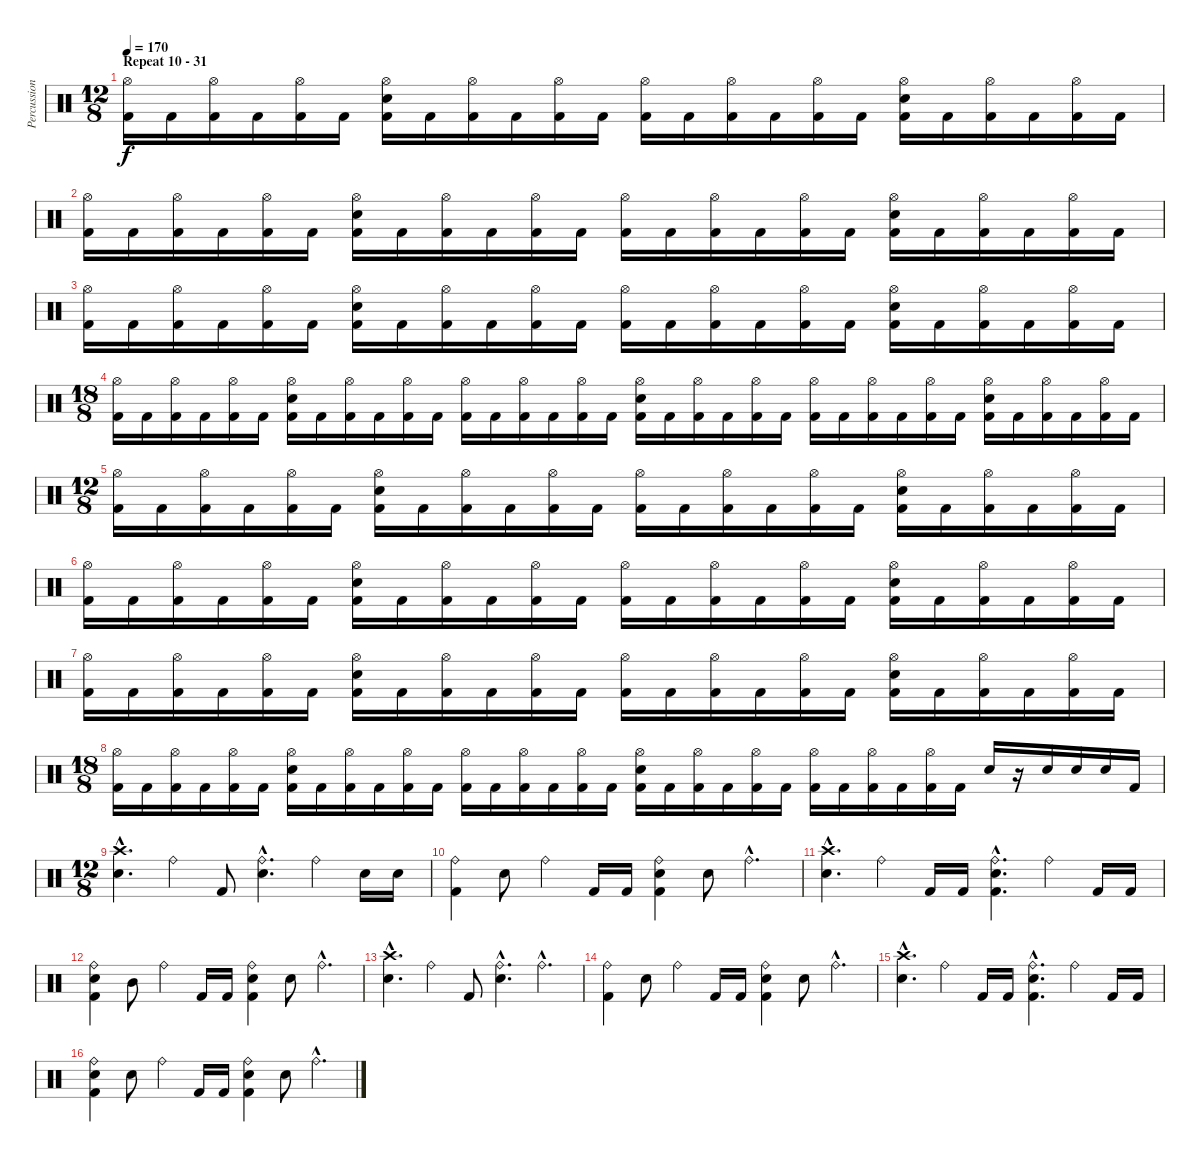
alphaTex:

\track ("Percussion" "Percussion") {instrument percussion}
\staff {score}
\articulation defaults
\ts (12 8)
\section ("" "Repeat 10 - 31")
\tempo 170
\clef neutral
\ks c
("Kick (hit) 2" "Hi-Hat (open)").16{dy f} "Kick (hit) 2".16 ("Kick (hit) 2" "Hi-Hat (open)").16 "Kick (hit) 2".16 ("Kick (hit) 2" "Hi-Hat (open)").16 "Kick (hit) 2".16 ("Kick (hit) 2" "Snare (hit) 2" "Hi-Hat (open)").16 "Kick (hit) 2".16 ("Kick (hit) 2" "Hi-Hat (open)").16 "Kick (hit) 2".16 ("Kick (hit) 2" "Hi-Hat (open)").16 "Kick (hit) 2".16 ("Kick (hit) 2" "Hi-Hat (open)").16 "Kick (hit) 2".16 ("Kick (hit) 2" "Hi-Hat (open)").16 "Kick (hit) 2".16 ("Kick (hit) 2" "Hi-Hat (open)").16 "Kick (hit) 2".16 ("Kick (hit) 2" "Snare (hit) 2" "Hi-Hat (open)").16 "Kick (hit) 2".16 ("Kick (hit) 2" "Hi-Hat (open)").16 "Kick (hit) 2".16 ("Kick (hit) 2" "Hi-Hat (open)").16 "Kick (hit) 2".16 |
("Kick (hit) 2" "Hi-Hat (open)").16 "Kick (hit) 2".16 ("Kick (hit) 2" "Hi-Hat (open)").16 "Kick (hit) 2".16 ("Kick (hit) 2" "Hi-Hat (open)").16 "Kick (hit) 2".16 ("Kick (hit) 2" "Snare (hit) 2" "Hi-Hat (open)").16 "Kick (hit) 2".16 ("Kick (hit) 2" "Hi-Hat (open)").16 "Kick (hit) 2".16 ("Kick (hit) 2" "Hi-Hat (open)").16 "Kick (hit) 2".16 ("Kick (hit) 2" "Hi-Hat (open)").16 "Kick (hit) 2".16 ("Kick (hit) 2" "Hi-Hat (open)").16 "Kick (hit) 2".16 ("Kick (hit) 2" "Hi-Hat (open)").16 "Kick (hit) 2".16 ("Kick (hit) 2" "Snare (hit) 2" "Hi-Hat (open)").16 "Kick (hit) 2".16 ("Kick (hit) 2" "Hi-Hat (open)").16 "Kick (hit) 2".16 ("Kick (hit) 2" "Hi-Hat (open)").16 "Kick (hit) 2".16 |
("Kick (hit) 2" "Hi-Hat (open)").16 "Kick (hit) 2".16 ("Kick (hit) 2" "Hi-Hat (open)").16 "Kick (hit) 2".16 ("Kick (hit) 2" "Hi-Hat (open)").16 "Kick (hit) 2".16 ("Kick (hit) 2" "Snare (hit) 2" "Hi-Hat (open)").16 "Kick (hit) 2".16 ("Kick (hit) 2" "Hi-Hat (open)").16 "Kick (hit) 2".16 ("Kick (hit) 2" "Hi-Hat (open)").16 "Kick (hit) 2".16 ("Kick (hit) 2" "Hi-Hat (open)").16 "Kick (hit) 2".16 ("Kick (hit) 2" "Hi-Hat (open)").16 "Kick (hit) 2".16 ("Kick (hit) 2" "Hi-Hat (open)").16 "Kick (hit) 2".16 ("Kick (hit) 2" "Snare (hit) 2" "Hi-Hat (open)").16 "Kick (hit) 2".16 ("Kick (hit) 2" "Hi-Hat (open)").16 "Kick (hit) 2".16 ("Kick (hit) 2" "Hi-Hat (open)").16 "Kick (hit) 2".16 |
\ts (18 8)
("Kick (hit) 2" "Hi-Hat (open)").16 "Kick (hit) 2".16 ("Kick (hit) 2" "Hi-Hat (open)").16 "Kick (hit) 2".16 ("Kick (hit) 2" "Hi-Hat (open)").16 "Kick (hit) 2".16 ("Kick (hit) 2" "Snare (hit) 2" "Hi-Hat (open)").16 "Kick (hit) 2".16 ("Kick (hit) 2" "Hi-Hat (open)").16 "Kick (hit) 2".16 ("Kick (hit) 2" "Hi-Hat (open)").16 "Kick (hit) 2".16 ("Kick (hit) 2" "Hi-Hat (open)").16 "Kick (hit) 2".16 ("Kick (hit) 2" "Hi-Hat (open)").16 "Kick (hit) 2".16 ("Kick (hit) 2" "Hi-Hat (open)").16 "Kick (hit) 2".16 ("Kick (hit) 2" "Snare (hit) 2" "Hi-Hat (open)").16 "Kick (hit) 2".16 ("Kick (hit) 2" "Hi-Hat (open)").16 "Kick (hit) 2".16 ("Kick (hit) 2" "Hi-Hat (open)").16 "Kick (hit) 2".16 ("Kick (hit) 2" "Hi-Hat (open)").16 "Kick (hit) 2".16 ("Kick (hit) 2" "Hi-Hat (open)").16 "Kick (hit) 2".16 ("Kick (hit) 2" "Hi-Hat (open)").16 "Kick (hit) 2".16 ("Kick (hit) 2" "Snare (hit) 2" "Hi-Hat (open)").16 "Kick (hit) 2".16 ("Kick (hit) 2" "Hi-Hat (open)").16 "Kick (hit) 2".16 ("Kick (hit) 2" "Hi-Hat (open)").16 "Kick (hit) 2".16 |
\ts (12 8)
("Kick (hit) 2" "Hi-Hat (open)").16 "Kick (hit) 2".16 ("Kick (hit) 2" "Hi-Hat (open)").16 "Kick (hit) 2".16 ("Kick (hit) 2" "Hi-Hat (open)").16 "Kick (hit) 2".16 ("Kick (hit) 2" "Snare (hit) 2" "Hi-Hat (open)").16 "Kick (hit) 2".16 ("Kick (hit) 2" "Hi-Hat (open)").16 "Kick (hit) 2".16 ("Kick (hit) 2" "Hi-Hat (open)").16 "Kick (hit) 2".16 ("Kick (hit) 2" "Hi-Hat (open)").16 "Kick (hit) 2".16 ("Kick (hit) 2" "Hi-Hat (open)").16 "Kick (hit) 2".16 ("Kick (hit) 2" "Hi-Hat (open)").16 "Kick (hit) 2".16 ("Kick (hit) 2" "Snare (hit) 2" "Hi-Hat (open)").16 "Kick (hit) 2".16 ("Kick (hit) 2" "Hi-Hat (open)").16 "Kick (hit) 2".16 ("Kick (hit) 2" "Hi-Hat (open)").16 "Kick (hit) 2".16 |
("Kick (hit) 2" "Hi-Hat (open)").16 "Kick (hit) 2".16 ("Kick (hit) 2" "Hi-Hat (open)").16 "Kick (hit) 2".16 ("Kick (hit) 2" "Hi-Hat (open)").16 "Kick (hit) 2".16 ("Kick (hit) 2" "Snare (hit) 2" "Hi-Hat (open)").16 "Kick (hit) 2".16 ("Kick (hit) 2" "Hi-Hat (open)").16 "Kick (hit) 2".16 ("Kick (hit) 2" "Hi-Hat (open)").16 "Kick (hit) 2".16 ("Kick (hit) 2" "Hi-Hat (open)").16 "Kick (hit) 2".16 ("Kick (hit) 2" "Hi-Hat (open)").16 "Kick (hit) 2".16 ("Kick (hit) 2" "Hi-Hat (open)").16 "Kick (hit) 2".16 ("Kick (hit) 2" "Snare (hit) 2" "Hi-Hat (open)").16 "Kick (hit) 2".16 ("Kick (hit) 2" "Hi-Hat (open)").16 "Kick (hit) 2".16 ("Kick (hit) 2" "Hi-Hat (open)").16 "Kick (hit) 2".16 |
("Kick (hit) 2" "Hi-Hat (open)").16 "Kick (hit) 2".16 ("Kick (hit) 2" "Hi-Hat (open)").16 "Kick (hit) 2".16 ("Kick (hit) 2" "Hi-Hat (open)").16 "Kick (hit) 2".16 ("Kick (hit) 2" "Snare (hit) 2" "Hi-Hat (open)").16 "Kick (hit) 2".16 ("Kick (hit) 2" "Hi-Hat (open)").16 "Kick (hit) 2".16 ("Kick (hit) 2" "Hi-Hat (open)").16 "Kick (hit) 2".16 ("Kick (hit) 2" "Hi-Hat (open)").16 "Kick (hit) 2".16 ("Kick (hit) 2" "Hi-Hat (open)").16 "Kick (hit) 2".16 ("Kick (hit) 2" "Hi-Hat (open)").16 "Kick (hit) 2".16 ("Kick (hit) 2" "Snare (hit) 2" "Hi-Hat (open)").16 "Kick (hit) 2".16 ("Kick (hit) 2" "Hi-Hat (open)").16 "Kick (hit) 2".16 ("Kick (hit) 2" "Hi-Hat (open)").16 "Kick (hit) 2".16 |
\ts (18 8)
("Kick (hit) 2" "Hi-Hat (open)").16 "Kick (hit) 2".16 ("Kick (hit) 2" "Hi-Hat (open)").16 "Kick (hit) 2".16 ("Kick (hit) 2" "Hi-Hat (open)").16 "Kick (hit) 2".16 ("Kick (hit) 2" "Snare (hit) 2" "Hi-Hat (open)").16 "Kick (hit) 2".16 ("Kick (hit) 2" "Hi-Hat (open)").16 "Kick (hit) 2".16 ("Kick (hit) 2" "Hi-Hat (open)").16 "Kick (hit) 2".16 ("Kick (hit) 2" "Hi-Hat (open)").16 "Kick (hit) 2".16 ("Kick (hit) 2" "Hi-Hat (open)").16 "Kick (hit) 2".16 ("Kick (hit) 2" "Hi-Hat (open)").16 "Kick (hit) 2".16 ("Kick (hit) 2" "Snare (hit) 2" "Hi-Hat (open)").16 "Kick (hit) 2".16 ("Kick (hit) 2" "Hi-Hat (open)").16 "Kick (hit) 2".16 ("Kick (hit) 2" "Hi-Hat (open)").16 "Kick (hit) 2".16 ("Kick (hit) 2" "Hi-Hat (open)").16 "Kick (hit) 2".16 ("Kick (hit) 2" "Hi-Hat (open)").16 "Kick (hit) 2".16 ("Kick (hit) 2" "Hi-Hat (open)").16 "Kick (hit) 2".16 "Snare (hit) 2".16 r.16 "Snare (hit) 2".16 "Snare (hit) 2".16 "Snare (hit) 2".16 "Kick (hit) 2".16 |
\ts (12 8)
("Snare (hit) 2"{hac} "Crash high (hit)"{hac}).4{d} "Ride (bell)".4 "Kick (hit) 2".8 ("Snare (hit) 2"{hac} "Ride (bell)"{hac}).4{d} "Ride (bell)".4 "Snare (hit) 2".16 "Snare (hit) 2".16 |
("Kick (hit) 2" "Ride (bell)").4 "Snare (hit) 2".8 "Ride (bell)".4 "Kick (hit) 2".16 "Kick (hit) 2".16 ("Kick (hit) 2" "Snare (hit) 2" "Ride (bell)").4 "Snare (hit) 2".8 "Ride (bell)"{hac}.4{d} |
("Snare (hit) 2"{hac} "Crash high (hit)"{hac}).4{d} "Ride (bell)".4 "Kick (hit) 2".16 "Kick (hit) 2".16 ("Kick (hit) 2"{hac} "Snare (hit) 2"{hac} "Ride (bell)"{hac}).4{d} "Ride (bell)".4 "Kick (hit) 2".16 "Kick (hit) 2".16 |
("Kick (hit) 2" "Snare (hit) 2" "Ride (bell)").4 "Mid Tom (hit)".8 "Ride (bell)".4 "Kick (hit) 2".16 "Kick (hit) 2".16 ("Kick (hit) 2" "Snare (hit) 2" "Ride (bell)").4 "Snare (hit) 2".8 "Ride (bell)"{hac}.4{d} |
("Snare (hit) 2"{hac} "Crash high (hit)"{hac}).4{d} "Ride (bell)".4 "Kick (hit) 2".8 ("Snare (hit) 2"{hac} "Ride (bell)"{hac}).4{d} "Ride (bell)"{hac}.4{d} |
("Kick (hit) 2" "Ride (bell)").4 "Snare (hit) 2".8 "Ride (bell)".4 "Kick (hit) 2".16 "Kick (hit) 2".16 ("Kick (hit) 2" "Snare (hit) 2" "Ride (bell)").4 "Snare (hit) 2".8 "Ride (bell)"{hac}.4{d} |
("Snare (hit) 2"{hac} "Crash high (hit)"{hac}).4{d} "Ride (bell)".4 "Kick (hit) 2".16 "Kick (hit) 2".16 ("Kick (hit) 2"{hac} "Snare (hit) 2"{hac} "Ride (bell)"{hac}).4{d} "Ride (bell)".4 "Kick (hit) 2".16 "Kick (hit) 2".16 |
("Kick (hit) 2" "Snare (hit) 2" "Ride (bell)").4 "Snare (hit) 2".8 "Ride (bell)".4 "Kick (hit) 2".16 "Kick (hit) 2".16 ("Kick (hit) 2" "Snare (hit) 2" "Ride (bell)").4 "Snare (hit) 2".8 "Ride (bell)"{hac}.4{d}
